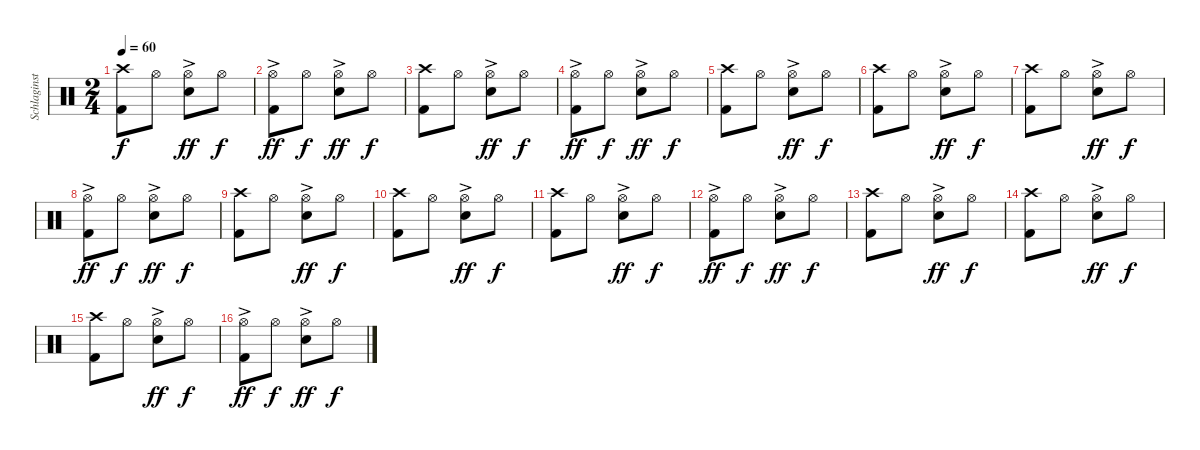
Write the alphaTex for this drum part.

\track ("Schlaginstrumente - Auswahl" "Schlaginst") {instrument percussion}
\staff {score}
\articulation defaults
\ts (2 4)
\tempo 60
\clef neutral
\ks c
("Crash high (hit)" "Kick (hit) 2").8{dy f} "Hi-Hat (open)".8 ("Hi-Hat (open)"{ac} "Snare (hit) 2").8{dy ff} "Hi-Hat (open)".8{dy f} |
("Hi-Hat (open)"{ac} "Kick (hit) 2").8{dy ff} "Hi-Hat (open)".8{dy f} ("Hi-Hat (open)"{ac} "Snare (hit) 2").8{dy ff} "Hi-Hat (open)".8{dy f} |
("Crash high (hit)" "Kick (hit) 2").8 "Hi-Hat (open)".8 ("Hi-Hat (open)"{ac} "Snare (hit) 2").8{dy ff} "Hi-Hat (open)".8{dy f} |
("Hi-Hat (open)"{ac} "Kick (hit) 2").8{dy ff} "Hi-Hat (open)".8{dy f} ("Hi-Hat (open)"{ac} "Snare (hit) 2").8{dy ff} "Hi-Hat (open)".8{dy f} |
("Crash high (hit)" "Kick (hit) 2").8 "Hi-Hat (open)".8 ("Hi-Hat (open)"{ac} "Snare (hit) 2").8{dy ff} "Hi-Hat (open)".8{dy f} |
("Crash high (hit)" "Kick (hit) 2").8 "Hi-Hat (open)".8 ("Hi-Hat (open)"{ac} "Snare (hit) 2").8{dy ff} "Hi-Hat (open)".8{dy f} |
("Crash high (hit)" "Kick (hit) 2").8 "Hi-Hat (open)".8 ("Hi-Hat (open)"{ac} "Snare (hit) 2").8{dy ff} "Hi-Hat (open)".8{dy f} |
("Hi-Hat (open)"{ac} "Kick (hit) 2").8{dy ff} "Hi-Hat (open)".8{dy f} ("Hi-Hat (open)"{ac} "Snare (hit) 2").8{dy ff} "Hi-Hat (open)".8{dy f} |
("Crash high (hit)" "Kick (hit) 2").8 "Hi-Hat (open)".8 ("Hi-Hat (open)"{ac} "Snare (hit) 2").8{dy ff} "Hi-Hat (open)".8{dy f} |
("Crash high (hit)" "Kick (hit) 2").8 "Hi-Hat (open)".8 ("Hi-Hat (open)"{ac} "Snare (hit) 2").8{dy ff} "Hi-Hat (open)".8{dy f} |
("Crash high (hit)" "Kick (hit) 2").8 "Hi-Hat (open)".8 ("Hi-Hat (open)"{ac} "Snare (hit) 2").8{dy ff} "Hi-Hat (open)".8{dy f} |
("Hi-Hat (open)"{ac} "Kick (hit) 2").8{dy ff} "Hi-Hat (open)".8{dy f} ("Hi-Hat (open)"{ac} "Snare (hit) 2").8{dy ff} "Hi-Hat (open)".8{dy f} |
("Crash high (hit)" "Kick (hit) 2").8 "Hi-Hat (open)".8 ("Hi-Hat (open)"{ac} "Snare (hit) 2").8{dy ff} "Hi-Hat (open)".8{dy f} |
("Crash high (hit)" "Kick (hit) 2").8 "Hi-Hat (open)".8 ("Hi-Hat (open)"{ac} "Snare (hit) 2").8{dy ff} "Hi-Hat (open)".8{dy f} |
("Crash high (hit)" "Kick (hit) 2").8 "Hi-Hat (open)".8 ("Hi-Hat (open)"{ac} "Snare (hit) 2").8{dy ff} "Hi-Hat (open)".8{dy f} |
("Hi-Hat (open)"{ac} "Kick (hit) 2").8{dy ff} "Hi-Hat (open)".8{dy f} ("Hi-Hat (open)"{ac} "Snare (hit) 2").8{dy ff} "Hi-Hat (open)".8{dy f}
